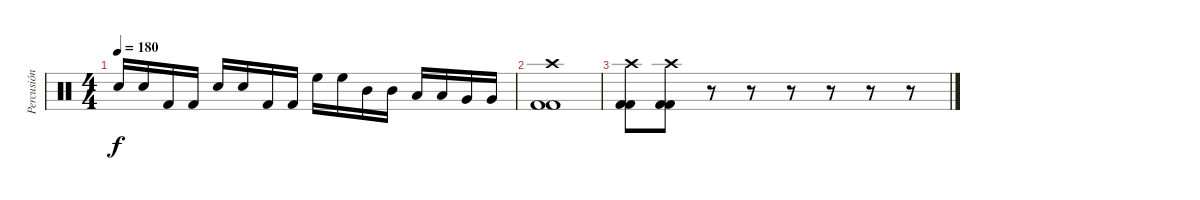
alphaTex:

\track ("Percusión" "Percusión") {instrument percussion}
\staff {score}
\articulation defaults
\ts (4 4)
\tempo 180
\clef neutral
\ks c "Electric Snare (hit)".16{dy f} "Electric Snare (hit)".16 "Kick (hit) 2".16 "Kick (hit) 2".16 "Electric Snare (hit)".16 "Electric Snare (hit)".16 "Kick (hit) 2".16 "Kick (hit) 2".16 "High Floor Tom (hit)".16 "High Floor Tom (hit)".16 "Mid Tom (hit)".16 "Mid Tom (hit)".16 "Low Tom (hit)".16 "Low Tom (hit)".16 "Very Low Tom (hit)".16 "Very Low Tom (hit)".16
|
("Crash high (hit)" "Kick (hit) 2" "Kick (hit) 2").1 |
("Crash high (hit)" "Kick (hit) 2" "Kick (hit) 2").8 ("Crash high (hit)" "Kick (hit) 2" "Kick (hit) 2").8 r.8 r.8 r.8 r.8 r.8 r.8
